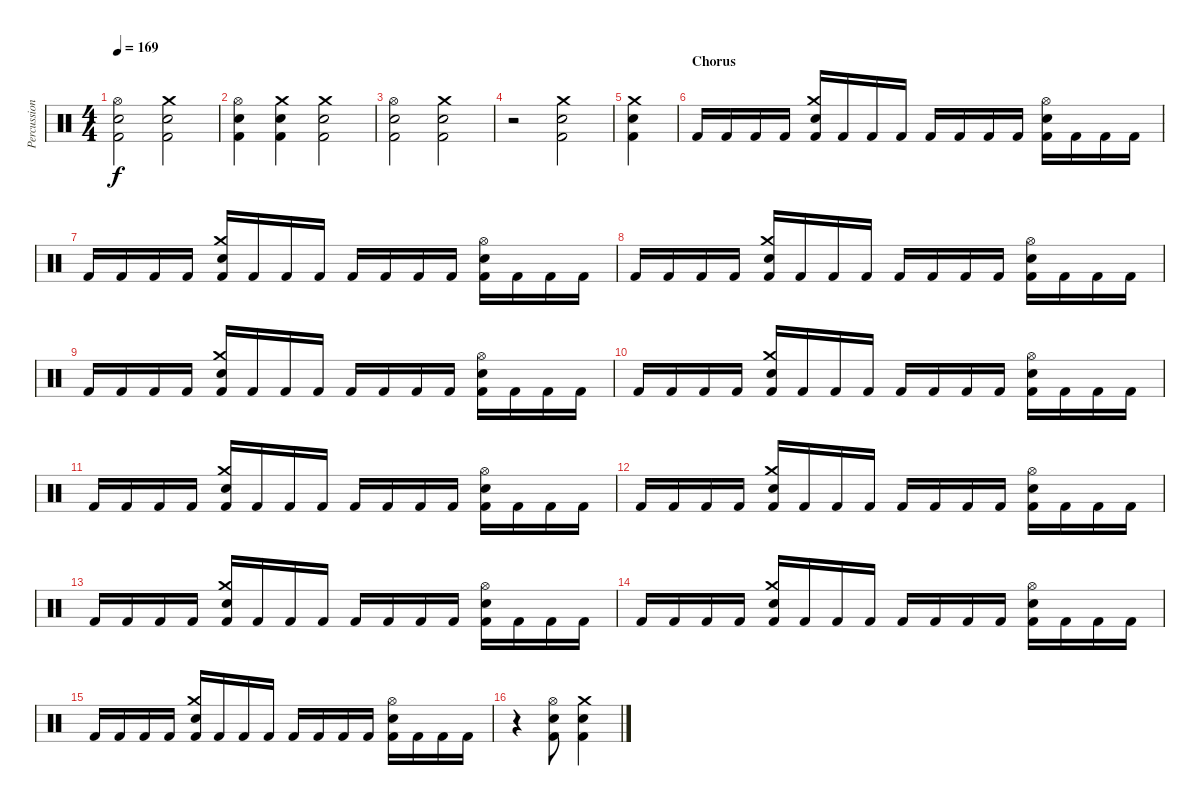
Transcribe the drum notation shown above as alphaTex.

\track ("Percussion" "Percussion") {instrument percussion}
\staff {score}
\articulation defaults
\ts (4 4)
\tempo 169
\clef neutral
\ks c
("Hi-Hat (open)" "Snare (hit) 2" "Kick (hit) 2").2{dy f} ("Crash medium (hit)" "Snare (hit) 2" "Kick (hit) 2").2 |
("Hi-Hat (open)" "Snare (hit) 2" "Kick (hit) 2").4 ("Crash medium (hit)" "Snare (hit) 2" "Kick (hit) 2").4 ("Crash medium (hit)" "Snare (hit) 2" "Kick (hit) 2").2 |
("Hi-Hat (open)" "Snare (hit) 2" "Kick (hit) 2").2 ("Crash medium (hit)" "Snare (hit) 2" "Kick (hit) 2").2 |
r.2 ("Crash medium (hit)" "Snare (hit) 2" "Kick (hit) 2").2 |
("Crash medium (hit)" "Snare (hit) 2" "Kick (hit) 2").4 |
\section ("" "Chorus")
"Kick (hit) 2".16 "Kick (hit) 2".16 "Kick (hit) 2".16 "Kick (hit) 2".16 ("Crash medium (hit)" "Electric Snare (hit)" "Kick (hit) 2").16 "Kick (hit) 2".16 "Kick (hit) 2".16 "Kick (hit) 2".16 "Kick (hit) 2".16 "Kick (hit) 2".16 "Kick (hit) 2".16 "Kick (hit) 2".16 ("Hi-Hat (open)" "Snare (hit) 2" "Kick (hit) 2").16 "Kick (hit) 2".16 "Kick (hit) 2".16 "Kick (hit) 2".16 |
"Kick (hit) 2".16 "Kick (hit) 2".16 "Kick (hit) 2".16 "Kick (hit) 2".16 ("Crash medium (hit)" "Electric Snare (hit)" "Kick (hit) 2").16 "Kick (hit) 2".16 "Kick (hit) 2".16 "Kick (hit) 2".16 "Kick (hit) 2".16 "Kick (hit) 2".16 "Kick (hit) 2".16 "Kick (hit) 2".16 ("Hi-Hat (open)" "Snare (hit) 2" "Kick (hit) 2").16 "Kick (hit) 2".16 "Kick (hit) 2".16 "Kick (hit) 2".16 |
"Kick (hit) 2".16 "Kick (hit) 2".16 "Kick (hit) 2".16 "Kick (hit) 2".16 ("Crash medium (hit)" "Electric Snare (hit)" "Kick (hit) 2").16 "Kick (hit) 2".16 "Kick (hit) 2".16 "Kick (hit) 2".16 "Kick (hit) 2".16 "Kick (hit) 2".16 "Kick (hit) 2".16 "Kick (hit) 2".16 ("Hi-Hat (open)" "Snare (hit) 2" "Kick (hit) 2").16 "Kick (hit) 2".16 "Kick (hit) 2".16 "Kick (hit) 2".16 |
"Kick (hit) 2".16 "Kick (hit) 2".16 "Kick (hit) 2".16 "Kick (hit) 2".16 ("Crash medium (hit)" "Electric Snare (hit)" "Kick (hit) 2").16 "Kick (hit) 2".16 "Kick (hit) 2".16 "Kick (hit) 2".16 "Kick (hit) 2".16 "Kick (hit) 2".16 "Kick (hit) 2".16 "Kick (hit) 2".16 ("Hi-Hat (open)" "Snare (hit) 2" "Kick (hit) 2").16 "Kick (hit) 2".16 "Kick (hit) 2".16 "Kick (hit) 2".16 |
"Kick (hit) 2".16 "Kick (hit) 2".16 "Kick (hit) 2".16 "Kick (hit) 2".16 ("Crash medium (hit)" "Electric Snare (hit)" "Kick (hit) 2").16 "Kick (hit) 2".16 "Kick (hit) 2".16 "Kick (hit) 2".16 "Kick (hit) 2".16 "Kick (hit) 2".16 "Kick (hit) 2".16 "Kick (hit) 2".16 ("Hi-Hat (open)" "Snare (hit) 2" "Kick (hit) 2").16 "Kick (hit) 2".16 "Kick (hit) 2".16 "Kick (hit) 2".16 |
"Kick (hit) 2".16 "Kick (hit) 2".16 "Kick (hit) 2".16 "Kick (hit) 2".16 ("Crash medium (hit)" "Electric Snare (hit)" "Kick (hit) 2").16 "Kick (hit) 2".16 "Kick (hit) 2".16 "Kick (hit) 2".16 "Kick (hit) 2".16 "Kick (hit) 2".16 "Kick (hit) 2".16 "Kick (hit) 2".16 ("Hi-Hat (open)" "Snare (hit) 2" "Kick (hit) 2").16 "Kick (hit) 2".16 "Kick (hit) 2".16 "Kick (hit) 2".16 |
"Kick (hit) 2".16 "Kick (hit) 2".16 "Kick (hit) 2".16 "Kick (hit) 2".16 ("Crash medium (hit)" "Electric Snare (hit)" "Kick (hit) 2").16 "Kick (hit) 2".16 "Kick (hit) 2".16 "Kick (hit) 2".16 "Kick (hit) 2".16 "Kick (hit) 2".16 "Kick (hit) 2".16 "Kick (hit) 2".16 ("Hi-Hat (open)" "Snare (hit) 2" "Kick (hit) 2").16 "Kick (hit) 2".16 "Kick (hit) 2".16 "Kick (hit) 2".16 |
"Kick (hit) 2".16 "Kick (hit) 2".16 "Kick (hit) 2".16 "Kick (hit) 2".16 ("Crash medium (hit)" "Electric Snare (hit)" "Kick (hit) 2").16 "Kick (hit) 2".16 "Kick (hit) 2".16 "Kick (hit) 2".16 "Kick (hit) 2".16 "Kick (hit) 2".16 "Kick (hit) 2".16 "Kick (hit) 2".16 ("Hi-Hat (open)" "Snare (hit) 2" "Kick (hit) 2").16 "Kick (hit) 2".16 "Kick (hit) 2".16 "Kick (hit) 2".16 |
"Kick (hit) 2".16 "Kick (hit) 2".16 "Kick (hit) 2".16 "Kick (hit) 2".16 ("Crash medium (hit)" "Electric Snare (hit)" "Kick (hit) 2").16 "Kick (hit) 2".16 "Kick (hit) 2".16 "Kick (hit) 2".16 "Kick (hit) 2".16 "Kick (hit) 2".16 "Kick (hit) 2".16 "Kick (hit) 2".16 ("Hi-Hat (open)" "Snare (hit) 2" "Kick (hit) 2").16 "Kick (hit) 2".16 "Kick (hit) 2".16 "Kick (hit) 2".16 |
"Kick (hit) 2".16 "Kick (hit) 2".16 "Kick (hit) 2".16 "Kick (hit) 2".16 ("Crash medium (hit)" "Electric Snare (hit)" "Kick (hit) 2").16 "Kick (hit) 2".16 "Kick (hit) 2".16 "Kick (hit) 2".16 "Kick (hit) 2".16 "Kick (hit) 2".16 "Kick (hit) 2".16 "Kick (hit) 2".16 ("Hi-Hat (open)" "Snare (hit) 2" "Kick (hit) 2").16 "Kick (hit) 2".16 "Kick (hit) 2".16 "Kick (hit) 2".16 |
r.4 ("Hi-Hat (open)" "Snare (hit) 2" "Kick (hit) 2").8 ("Crash medium (hit)" "Snare (hit) 2" "Kick (hit) 2").4
